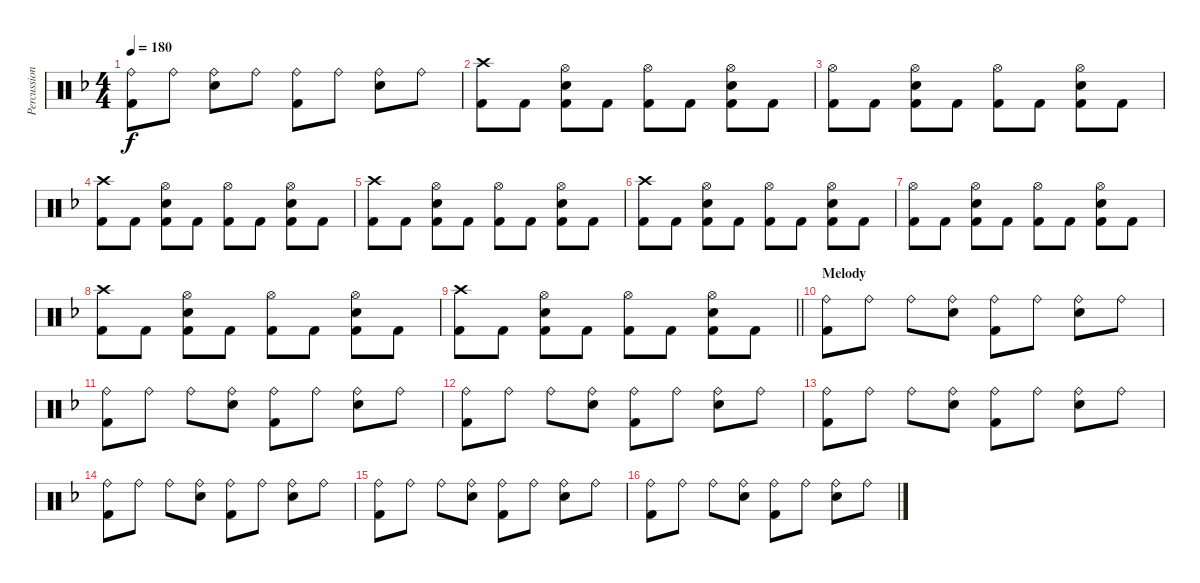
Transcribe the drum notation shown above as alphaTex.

\track ("Percussion" "Percussion") {instrument percussion}
\staff {score}
\articulation defaults
\ts (4 4)
\tempo 180
\clef neutral
\ks dminor
("Ride (bell)" "Kick (hit) 2").8{dy f} "Ride (bell)".8 ("Ride (bell)" "Snare (hit) 2").8 "Ride (bell)".8 ("Ride (bell)" "Kick (hit) 2").8 "Ride (bell)".8 ("Ride (bell)" "Snare (hit) 2").8 "Ride (bell)".8 |
("Crash high (hit)" "Kick (hit) 2").8 "Kick (hit) 2".8 ("Hi-Hat (open)" "Snare (hit) 2" "Kick (hit) 2").8 "Kick (hit) 2".8 ("Hi-Hat (open)" "Kick (hit) 2").8 "Kick (hit) 2".8 ("Hi-Hat (open)" "Snare (hit) 2" "Kick (hit) 2").8 "Kick (hit) 2".8 |
("Hi-Hat (open)" "Kick (hit) 2").8 "Kick (hit) 2".8 ("Hi-Hat (open)" "Snare (hit) 2" "Kick (hit) 2").8 "Kick (hit) 2".8 ("Hi-Hat (open)" "Kick (hit) 2").8 "Kick (hit) 2".8 ("Hi-Hat (open)" "Snare (hit) 2" "Kick (hit) 2").8 "Kick (hit) 2".8 |
("Crash high (hit)" "Kick (hit) 2").8 "Kick (hit) 2".8 ("Hi-Hat (open)" "Snare (hit) 2" "Kick (hit) 2").8 "Kick (hit) 2".8 ("Hi-Hat (open)" "Kick (hit) 2").8 "Kick (hit) 2".8 ("Hi-Hat (open)" "Snare (hit) 2" "Kick (hit) 2").8 "Kick (hit) 2".8 |
("Crash high (hit)" "Kick (hit) 2").8 "Kick (hit) 2".8 ("Hi-Hat (open)" "Snare (hit) 2" "Kick (hit) 2").8 "Kick (hit) 2".8 ("Hi-Hat (open)" "Kick (hit) 2").8 "Kick (hit) 2".8 ("Hi-Hat (open)" "Snare (hit) 2" "Kick (hit) 2").8 "Kick (hit) 2".8 |
("Crash high (hit)" "Kick (hit) 2").8 "Kick (hit) 2".8 ("Hi-Hat (open)" "Snare (hit) 2" "Kick (hit) 2").8 "Kick (hit) 2".8 ("Hi-Hat (open)" "Kick (hit) 2").8 "Kick (hit) 2".8 ("Hi-Hat (open)" "Snare (hit) 2" "Kick (hit) 2").8 "Kick (hit) 2".8 |
("Hi-Hat (open)" "Kick (hit) 2").8 "Kick (hit) 2".8 ("Hi-Hat (open)" "Snare (hit) 2" "Kick (hit) 2").8 "Kick (hit) 2".8 ("Hi-Hat (open)" "Kick (hit) 2").8 "Kick (hit) 2".8 ("Hi-Hat (open)" "Snare (hit) 2" "Kick (hit) 2").8 "Kick (hit) 2".8 |
("Crash high (hit)" "Kick (hit) 2").8 "Kick (hit) 2".8 ("Hi-Hat (open)" "Snare (hit) 2" "Kick (hit) 2").8 "Kick (hit) 2".8 ("Hi-Hat (open)" "Kick (hit) 2").8 "Kick (hit) 2".8 ("Hi-Hat (open)" "Snare (hit) 2" "Kick (hit) 2").8 "Kick (hit) 2".8 |
\barLineRight lightlight
("Crash high (hit)" "Kick (hit) 2").8 "Kick (hit) 2".8 ("Hi-Hat (open)" "Snare (hit) 2" "Kick (hit) 2").8 "Kick (hit) 2".8 ("Hi-Hat (open)" "Kick (hit) 2").8 "Kick (hit) 2".8 ("Hi-Hat (open)" "Snare (hit) 2" "Kick (hit) 2").8 "Kick (hit) 2".8 |
\section ("" "Melody")
("Ride (bell)" "Kick (hit) 2").8 "Ride (bell)".8 "Ride (bell)".8 ("Ride (bell)" "Snare (hit) 2").8 ("Ride (bell)" "Kick (hit) 2").8 "Ride (bell)".8 ("Ride (bell)" "Snare (hit) 2").8 "Ride (bell)".8 |
("Ride (bell)" "Kick (hit) 2").8 "Ride (bell)".8 "Ride (bell)".8 ("Ride (bell)" "Snare (hit) 2").8 ("Ride (bell)" "Kick (hit) 2").8 "Ride (bell)".8 ("Ride (bell)" "Snare (hit) 2").8 "Ride (bell)".8 |
("Ride (bell)" "Kick (hit) 2").8 "Ride (bell)".8 "Ride (bell)".8 ("Ride (bell)" "Snare (hit) 2").8 ("Ride (bell)" "Kick (hit) 2").8 "Ride (bell)".8 ("Ride (bell)" "Snare (hit) 2").8 "Ride (bell)".8 |
("Ride (bell)" "Kick (hit) 2").8 "Ride (bell)".8 "Ride (bell)".8 ("Ride (bell)" "Snare (hit) 2").8 ("Ride (bell)" "Kick (hit) 2").8 "Ride (bell)".8 ("Ride (bell)" "Snare (hit) 2").8 "Ride (bell)".8 |
("Ride (bell)" "Kick (hit) 2").8 "Ride (bell)".8 "Ride (bell)".8 ("Ride (bell)" "Snare (hit) 2").8 ("Ride (bell)" "Kick (hit) 2").8 "Ride (bell)".8 ("Ride (bell)" "Snare (hit) 2").8 "Ride (bell)".8 |
("Ride (bell)" "Kick (hit) 2").8 "Ride (bell)".8 "Ride (bell)".8 ("Ride (bell)" "Snare (hit) 2").8 ("Ride (bell)" "Kick (hit) 2").8 "Ride (bell)".8 ("Ride (bell)" "Snare (hit) 2").8 "Ride (bell)".8 |
("Ride (bell)" "Kick (hit) 2").8 "Ride (bell)".8 "Ride (bell)".8 ("Ride (bell)" "Snare (hit) 2").8 ("Ride (bell)" "Kick (hit) 2").8 "Ride (bell)".8 ("Ride (bell)" "Snare (hit) 2").8 "Ride (bell)".8
